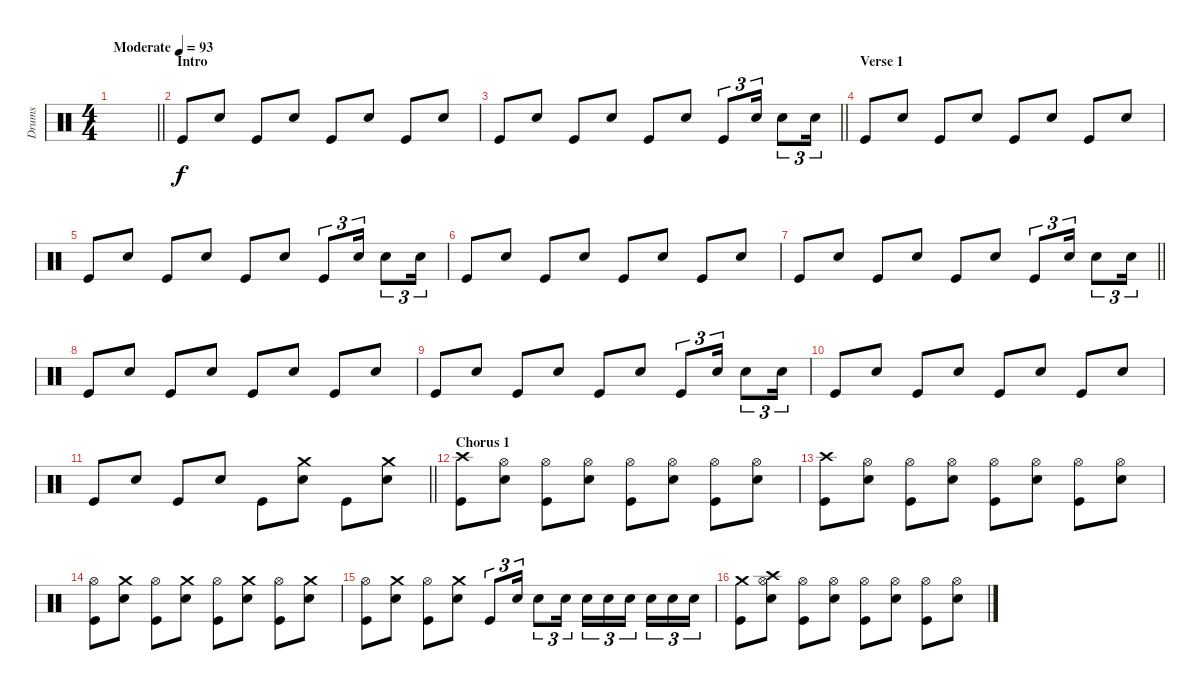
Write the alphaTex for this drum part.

\track ("Drums" "Drums") {instrument percussion}
\staff {score}
\articulation defaults
\ts (4 4)
\tempo (93 "Moderate")
\clef neutral
\barLineRight lightlight
\ks c
|
\section ("" "Intro")
"Kick (hit)".8 "Snare (hit) 2".8 "Kick (hit)".8 "Snare (hit) 2".8 "Kick (hit)".8 "Snare (hit) 2".8 "Kick (hit)".8 "Snare (hit) 2".8 |
\barLineRight lightlight "Kick (hit)".8 "Snare (hit) 2".8 "Kick (hit)".8 "Snare (hit) 2".8 "Kick (hit)".8 "Snare (hit) 2".8 "Kick (hit)".8{tu (3 2)} "Snare (hit) 2".16{tu (3 2)} "Snare (hit) 2".8{tu (3 2)} "Snare (hit) 2".16{tu (3 2)}
|
\section ("" "Verse 1")
"Kick (hit)".8 "Snare (hit) 2".8 "Kick (hit)".8 "Snare (hit) 2".8 "Kick (hit)".8 "Snare (hit) 2".8 "Kick (hit)".8 "Snare (hit) 2".8 |
"Kick (hit)".8 "Snare (hit) 2".8 "Kick (hit)".8 "Snare (hit) 2".8 "Kick (hit)".8 "Snare (hit) 2".8 "Kick (hit)".8{tu (3 2)} "Snare (hit) 2".16{tu (3 2)} "Snare (hit) 2".8{tu (3 2)} "Snare (hit) 2".16{tu (3 2)} |
"Kick (hit)".8 "Snare (hit) 2".8 "Kick (hit)".8 "Snare (hit) 2".8 "Kick (hit)".8 "Snare (hit) 2".8 "Kick (hit)".8 "Snare (hit) 2".8 |
\barLineRight lightlight "Kick (hit)".8 "Snare (hit) 2".8 "Kick (hit)".8 "Snare (hit) 2".8 "Kick (hit)".8 "Snare (hit) 2".8 "Kick (hit)".8{tu (3 2)} "Snare (hit) 2".16{tu (3 2)} "Snare (hit) 2".8{tu (3 2)} "Snare (hit) 2".16{tu (3 2)}
|
"Kick (hit)".8 "Snare (hit) 2".8 "Kick (hit)".8 "Snare (hit) 2".8 "Kick (hit)".8 "Snare (hit) 2".8 "Kick (hit)".8 "Snare (hit) 2".8 |
"Kick (hit)".8 "Snare (hit) 2".8 "Kick (hit)".8 "Snare (hit) 2".8 "Kick (hit)".8 "Snare (hit) 2".8 "Kick (hit)".8{tu (3 2)} "Snare (hit) 2".16{tu (3 2)} "Snare (hit) 2".8{tu (3 2)} "Snare (hit) 2".16{tu (3 2)} |
"Kick (hit)".8 "Snare (hit) 2".8 "Kick (hit)".8 "Snare (hit) 2".8 "Kick (hit)".8 "Snare (hit) 2".8 "Kick (hit)".8 "Snare (hit) 2".8 |
\barLineRight lightlight "Kick (hit)".8 "Snare (hit) 2".8 "Kick (hit)".8 "Snare (hit) 2".8 "Kick (hit)".8
("Crash medium (hit)" "Snare (hit) 2").8 "Kick (hit)".8 ("Crash medium (hit)" "Snare (hit) 2").8 |
\section ("" "Chorus 1")
("Crash high (hit)" "Kick (hit)").8 ("Hi-Hat (open)" "Snare (hit) 2").8 ("Hi-Hat (open)" "Kick (hit)").8 ("Hi-Hat (open)" "Snare (hit) 2").8 ("Hi-Hat (open)" "Kick (hit)").8 ("Hi-Hat (open)" "Snare (hit) 2").8 ("Hi-Hat (open)" "Kick (hit)").8 ("Hi-Hat (open)" "Snare (hit) 2").8 |
("Crash high (hit)" "Kick (hit)").8 ("Hi-Hat (open)" "Snare (hit) 2").8 ("Hi-Hat (open)" "Kick (hit)").8 ("Hi-Hat (open)" "Snare (hit) 2").8 ("Hi-Hat (open)" "Kick (hit)").8 ("Hi-Hat (open)" "Snare (hit) 2").8 ("Hi-Hat (open)" "Kick (hit)").8 ("Hi-Hat (open)" "Snare (hit) 2").8 |
("Hi-Hat (open)" "Kick (hit)").8 ("Crash medium (hit)" "Snare (hit) 2").8 ("Hi-Hat (open)" "Kick (hit)").8 ("Crash medium (hit)" "Snare (hit) 2").8 ("Hi-Hat (open)" "Kick (hit)").8 ("Crash medium (hit)" "Snare (hit) 2").8 ("Hi-Hat (open)" "Kick (hit)").8 ("Crash medium (hit)" "Snare (hit) 2").8 |
("Hi-Hat (open)" "Kick (hit)").8 ("Crash medium (hit)" "Snare (hit) 2").8 ("Hi-Hat (open)" "Kick (hit)").8 ("Crash medium (hit)" "Snare (hit) 2").8 "Kick (hit)".8{tu (3 2)} "Snare (hit) 2".16{tu (3 2)} "Snare (hit) 2".8{tu (3 2)} "Snare (hit) 2".16{tu (3 2)} "Snare (hit) 2".16{tu (3 2)} "Snare (hit) 2".16{tu (3 2)} "Snare (hit) 2".16{tu (3 2) beam splitsecondary} "Snare (hit) 2".16{tu (3 2)} "Snare (hit) 2".16{tu (3 2)} "Snare (hit) 2".16{tu (3 2)} |
("Crash medium (hit)" "Kick (hit)").8 ("Crash high (hit)" "Hi-Hat (open)" "Snare (hit) 2").8 ("Hi-Hat (open)" "Kick (hit)").8 ("Hi-Hat (open)" "Snare (hit) 2").8 ("Hi-Hat (open)" "Kick (hit)").8 ("Hi-Hat (open)" "Snare (hit) 2").8 ("Hi-Hat (open)" "Kick (hit)").8 ("Hi-Hat (open)" "Snare (hit) 2").8
